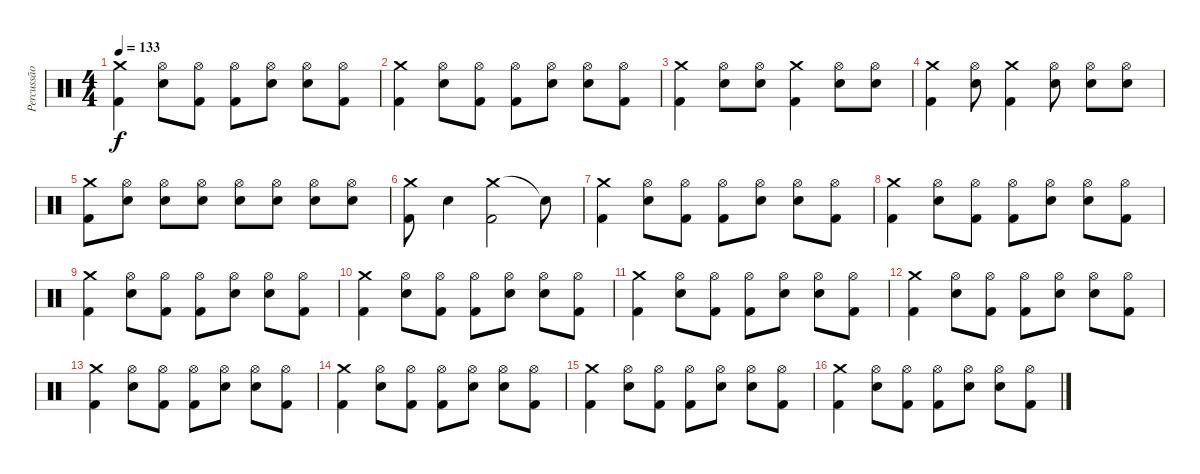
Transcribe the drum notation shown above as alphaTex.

\track ("Percussão" "Percussão") {instrument percussion}
\staff {score}
\articulation defaults
\ts (4 4)
\tempo 133
\clef neutral
\ks c
("Crash medium (hit)" "Kick (hit) 2").4{dy f} ("Electric Snare (hit)" "Hi-Hat (open)").8 ("Kick (hit) 2" "Hi-Hat (open)").8 ("Kick (hit) 2" "Hi-Hat (open)").8 ("Electric Snare (hit)" "Hi-Hat (open)").8 ("Electric Snare (hit)" "Hi-Hat (open)").8 ("Kick (hit) 2" "Hi-Hat (open)").8 |
("Crash medium (hit)" "Kick (hit) 2").4 ("Electric Snare (hit)" "Hi-Hat (open)").8 ("Kick (hit) 2" "Hi-Hat (open)").8 ("Kick (hit) 2" "Hi-Hat (open)").8 ("Electric Snare (hit)" "Hi-Hat (open)").8 ("Electric Snare (hit)" "Hi-Hat (open)").8 ("Kick (hit) 2" "Hi-Hat (open)").8 |
("Crash medium (hit)" "Kick (hit) 2").4 ("Electric Snare (hit)" "Hi-Hat (open)").8 ("Electric Snare (hit)" "Hi-Hat (open)").8 ("Crash medium (hit)" "Kick (hit) 2").4 ("Electric Snare (hit)" "Hi-Hat (open)").8 ("Electric Snare (hit)" "Hi-Hat (open)").8 |
("Crash medium (hit)" "Kick (hit) 2").4 ("Electric Snare (hit)" "Hi-Hat (open)").8 ("Crash medium (hit)" "Kick (hit) 2").4 ("Electric Snare (hit)" "Hi-Hat (open)").8 ("Electric Snare (hit)" "Hi-Hat (open)").8 ("Electric Snare (hit)" "Hi-Hat (open)").8 |
("Crash medium (hit)" "Kick (hit) 2").8 ("Electric Snare (hit)" "Hi-Hat (open)").8 ("Electric Snare (hit)" "Hi-Hat (open)").8 ("Electric Snare (hit)" "Hi-Hat (open)").8 ("Electric Snare (hit)" "Hi-Hat (open)").8 ("Electric Snare (hit)" "Hi-Hat (open)").8 ("Electric Snare (hit)" "Hi-Hat (open)").8 ("Electric Snare (hit)" "Hi-Hat (open)").8 |
("Crash medium (hit)" "Kick (hit) 2").8 "Electric Snare (hit)".4 ("Crash medium (hit)" "Kick (hit) 2").2 "Snare (hit)"{t}.8 |
("Crash medium (hit)" "Kick (hit) 2").4 ("Electric Snare (hit)" "Hi-Hat (open)").8 ("Kick (hit) 2" "Hi-Hat (open)").8 ("Kick (hit) 2" "Hi-Hat (open)").8 ("Electric Snare (hit)" "Hi-Hat (open)").8 ("Electric Snare (hit)" "Hi-Hat (open)").8 ("Kick (hit) 2" "Hi-Hat (open)").8 |
("Crash medium (hit)" "Kick (hit) 2").4 ("Electric Snare (hit)" "Hi-Hat (open)").8 ("Kick (hit) 2" "Hi-Hat (open)").8 ("Kick (hit) 2" "Hi-Hat (open)").8 ("Electric Snare (hit)" "Hi-Hat (open)").8 ("Electric Snare (hit)" "Hi-Hat (open)").8 ("Kick (hit) 2" "Hi-Hat (open)").8 |
("Crash medium (hit)" "Kick (hit) 2").4 ("Electric Snare (hit)" "Hi-Hat (open)").8 ("Kick (hit) 2" "Hi-Hat (open)").8 ("Kick (hit) 2" "Hi-Hat (open)").8 ("Electric Snare (hit)" "Hi-Hat (open)").8 ("Electric Snare (hit)" "Hi-Hat (open)").8 ("Kick (hit) 2" "Hi-Hat (open)").8 |
("Crash medium (hit)" "Kick (hit) 2").4 ("Electric Snare (hit)" "Hi-Hat (open)").8 ("Kick (hit) 2" "Hi-Hat (open)").8 ("Kick (hit) 2" "Hi-Hat (open)").8 ("Electric Snare (hit)" "Hi-Hat (open)").8 ("Electric Snare (hit)" "Hi-Hat (open)").8 ("Kick (hit) 2" "Hi-Hat (open)").8 |
("Crash medium (hit)" "Kick (hit) 2").4 ("Electric Snare (hit)" "Hi-Hat (open)").8 ("Kick (hit) 2" "Hi-Hat (open)").8 ("Kick (hit) 2" "Hi-Hat (open)").8 ("Electric Snare (hit)" "Hi-Hat (open)").8 ("Electric Snare (hit)" "Hi-Hat (open)").8 ("Kick (hit) 2" "Hi-Hat (open)").8 |
("Crash medium (hit)" "Kick (hit) 2").4 ("Electric Snare (hit)" "Hi-Hat (open)").8 ("Kick (hit) 2" "Hi-Hat (open)").8 ("Kick (hit) 2" "Hi-Hat (open)").8 ("Electric Snare (hit)" "Hi-Hat (open)").8 ("Electric Snare (hit)" "Hi-Hat (open)").8 ("Kick (hit) 2" "Hi-Hat (open)").8 |
("Crash medium (hit)" "Kick (hit) 2").4 ("Electric Snare (hit)" "Hi-Hat (open)").8 ("Kick (hit) 2" "Hi-Hat (open)").8 ("Kick (hit) 2" "Hi-Hat (open)").8 ("Electric Snare (hit)" "Hi-Hat (open)").8 ("Electric Snare (hit)" "Hi-Hat (open)").8 ("Kick (hit) 2" "Hi-Hat (open)").8 |
("Crash medium (hit)" "Kick (hit) 2").4 ("Electric Snare (hit)" "Hi-Hat (open)").8 ("Kick (hit) 2" "Hi-Hat (open)").8 ("Kick (hit) 2" "Hi-Hat (open)").8 ("Electric Snare (hit)" "Hi-Hat (open)").8 ("Electric Snare (hit)" "Hi-Hat (open)").8 ("Kick (hit) 2" "Hi-Hat (open)").8 |
("Crash medium (hit)" "Kick (hit) 2").4 ("Electric Snare (hit)" "Hi-Hat (open)").8 ("Kick (hit) 2" "Hi-Hat (open)").8 ("Kick (hit) 2" "Hi-Hat (open)").8 ("Electric Snare (hit)" "Hi-Hat (open)").8 ("Electric Snare (hit)" "Hi-Hat (open)").8 ("Kick (hit) 2" "Hi-Hat (open)").8 |
("Crash medium (hit)" "Kick (hit) 2").4 ("Electric Snare (hit)" "Hi-Hat (open)").8 ("Kick (hit) 2" "Hi-Hat (open)").8 ("Kick (hit) 2" "Hi-Hat (open)").8 ("Electric Snare (hit)" "Hi-Hat (open)").8 ("Electric Snare (hit)" "Hi-Hat (open)").8 ("Kick (hit) 2" "Hi-Hat (open)").8
